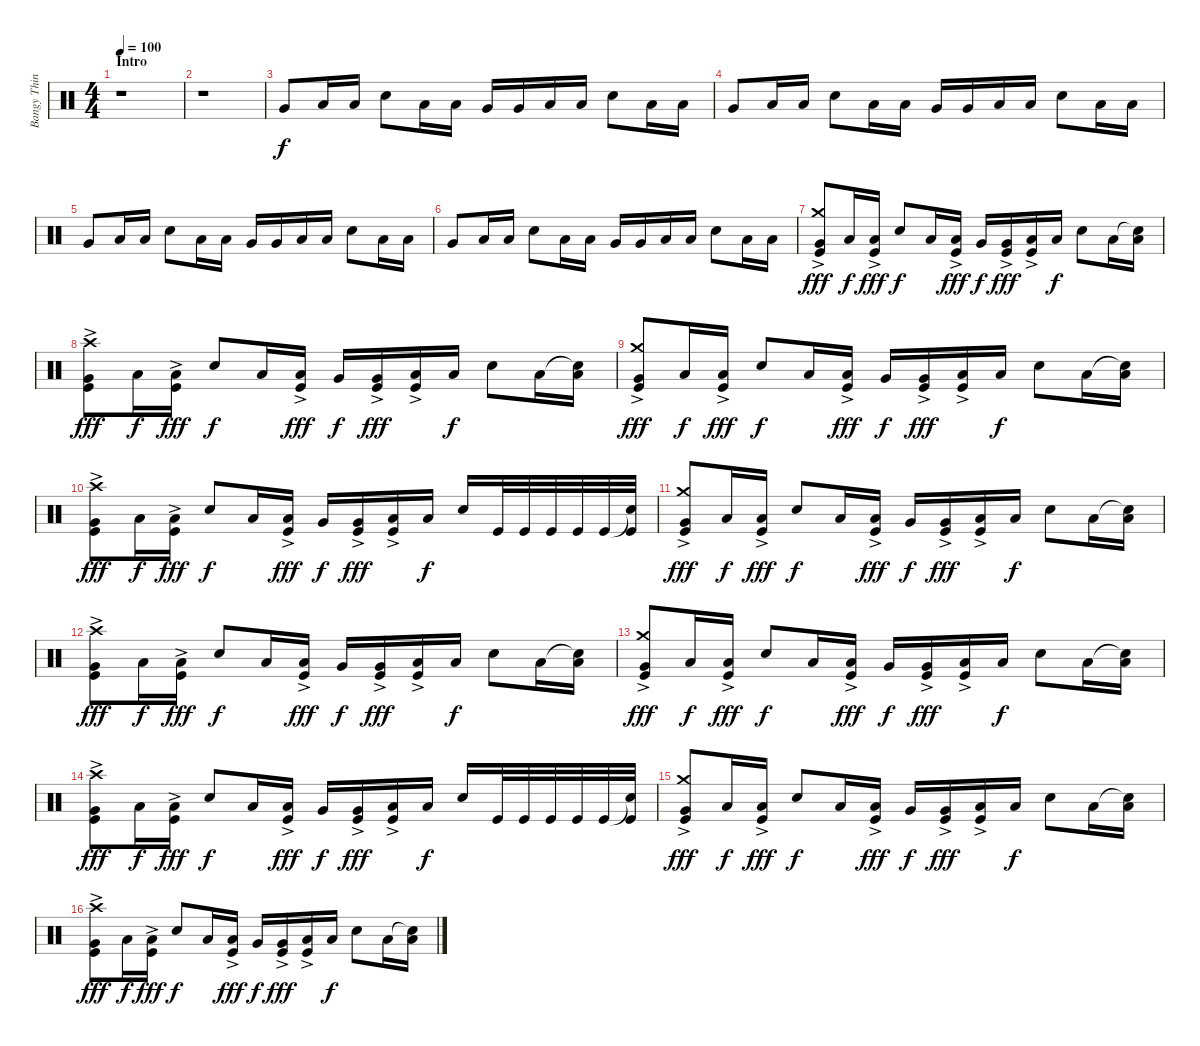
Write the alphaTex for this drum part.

\track ("Bangy Things" "Bangy Thin") {instrument percussion}
\staff {score}
\articulation defaults
\ts (4 4)
\section ("" "Intro")
\tempo 100
\clef neutral
\ks c
r.1{dy f} |
r.1 |
"Very Low Tom (hit)".8 "Low Floor Tom (hit)".16 "Low Floor Tom (hit)".16 "Electric Snare (hit)".8 "Low Floor Tom (hit)".16 "Low Floor Tom (hit)".16 "Very Low Tom (hit)".16 "Very Low Tom (hit)".16 "Low Floor Tom (hit)".16 "Low Floor Tom (hit)".16 "Electric Snare (hit)".8 "Low Floor Tom (hit)".16 "Low Floor Tom (hit)".16 |
"Very Low Tom (hit)".8 "Low Floor Tom (hit)".16 "Low Floor Tom (hit)".16 "Electric Snare (hit)".8 "Low Floor Tom (hit)".16 "Low Floor Tom (hit)".16 "Very Low Tom (hit)".16 "Very Low Tom (hit)".16 "Low Floor Tom (hit)".16 "Low Floor Tom (hit)".16 "Electric Snare (hit)".8 "Low Floor Tom (hit)".16 "Low Floor Tom (hit)".16 |
"Very Low Tom (hit)".8 "Low Floor Tom (hit)".16 "Low Floor Tom (hit)".16 "Electric Snare (hit)".8 "Low Floor Tom (hit)".16 "Low Floor Tom (hit)".16 "Very Low Tom (hit)".16 "Very Low Tom (hit)".16 "Low Floor Tom (hit)".16 "Low Floor Tom (hit)".16 "Electric Snare (hit)".8 "Low Floor Tom (hit)".16 "Low Floor Tom (hit)".16 |
"Very Low Tom (hit)".8 "Low Floor Tom (hit)".16 "Low Floor Tom (hit)".16 "Electric Snare (hit)".8 "Low Floor Tom (hit)".16 "Low Floor Tom (hit)".16 "Very Low Tom (hit)".16 "Very Low Tom (hit)".16 "Low Floor Tom (hit)".16 "Low Floor Tom (hit)".16 "Electric Snare (hit)".8 "Low Floor Tom (hit)".16 "Low Floor Tom (hit)".16 |
("Crash medium (hit)"{ac} "Very Low Tom (hit)" "Kick (hit)"{ac}).8{dy fff} "Low Floor Tom (hit)".16{dy f} ("Low Floor Tom (hit)" "Kick (hit)"{ac}).16{dy fff} "Electric Snare (hit)".8{dy f} "Low Floor Tom (hit)".16 ("Low Floor Tom (hit)" "Kick (hit)"{ac}).16{dy fff} "Very Low Tom (hit)".16{dy f} ("Very Low Tom (hit)" "Kick (hit)"{ac}).16{dy fff} ("Low Floor Tom (hit)" "Kick (hit)"{ac}).16 "Low Floor Tom (hit)".16{dy f} "Electric Snare (hit)".8 "Low Floor Tom (hit)".16 ("Snare (hit)"{t} "Low Floor Tom (hit)").16 |
("Crash high (hit)"{ac} "Very Low Tom (hit)" "Kick (hit)"{ac}).8{dy fff} "Low Floor Tom (hit)".16{dy f} ("Low Floor Tom (hit)" "Kick (hit)"{ac}).16{dy fff} "Electric Snare (hit)".8{dy f} "Low Floor Tom (hit)".16 ("Low Floor Tom (hit)" "Kick (hit)"{ac}).16{dy fff} "Very Low Tom (hit)".16{dy f} ("Very Low Tom (hit)" "Kick (hit)"{ac}).16{dy fff} ("Low Floor Tom (hit)" "Kick (hit)"{ac}).16 "Low Floor Tom (hit)".16{dy f} "Electric Snare (hit)".8 "Low Floor Tom (hit)".16 ("Snare (hit)"{t} "Low Floor Tom (hit)").16 |
("Crash medium (hit)"{ac} "Very Low Tom (hit)" "Kick (hit)"{ac}).8{dy fff} "Low Floor Tom (hit)".16{dy f} ("Low Floor Tom (hit)" "Kick (hit)"{ac}).16{dy fff} "Electric Snare (hit)".8{dy f} "Low Floor Tom (hit)".16 ("Low Floor Tom (hit)" "Kick (hit)"{ac}).16{dy fff} "Very Low Tom (hit)".16{dy f} ("Very Low Tom (hit)" "Kick (hit)"{ac}).16{dy fff} ("Low Floor Tom (hit)" "Kick (hit)"{ac}).16 "Low Floor Tom (hit)".16{dy f} "Electric Snare (hit)".8 "Low Floor Tom (hit)".16 ("Snare (hit)"{t} "Low Floor Tom (hit)").16 |
("Crash high (hit)"{ac} "Very Low Tom (hit)" "Kick (hit)"{ac}).8{dy fff} "Low Floor Tom (hit)".16{dy f} ("Low Floor Tom (hit)" "Kick (hit)"{ac}).16{dy fff} "Electric Snare (hit)".8{dy f} "Low Floor Tom (hit)".16 ("Low Floor Tom (hit)" "Kick (hit)"{ac}).16{dy fff} "Very Low Tom (hit)".16{dy f} ("Very Low Tom (hit)" "Kick (hit)"{ac}).16{dy fff} ("Low Floor Tom (hit)" "Kick (hit)"{ac}).16 "Low Floor Tom (hit)".16{dy f} "Electric Snare (hit)".16 "Kick (hit)".32 "Kick (hit)".32 "Kick (hit)".32 "Kick (hit)".32 "Kick (hit)".32 ("Snare (hit)"{t} "Kick (hit)").32 |
("Crash medium (hit)"{ac} "Very Low Tom (hit)" "Kick (hit)"{ac}).8{dy fff} "Low Floor Tom (hit)".16{dy f} ("Low Floor Tom (hit)" "Kick (hit)"{ac}).16{dy fff} "Electric Snare (hit)".8{dy f} "Low Floor Tom (hit)".16 ("Low Floor Tom (hit)" "Kick (hit)"{ac}).16{dy fff} "Very Low Tom (hit)".16{dy f} ("Very Low Tom (hit)" "Kick (hit)"{ac}).16{dy fff} ("Low Floor Tom (hit)" "Kick (hit)"{ac}).16 "Low Floor Tom (hit)".16{dy f} "Electric Snare (hit)".8 "Low Floor Tom (hit)".16 ("Snare (hit)"{t} "Low Floor Tom (hit)").16 |
("Crash high (hit)"{ac} "Very Low Tom (hit)" "Kick (hit)"{ac}).8{dy fff} "Low Floor Tom (hit)".16{dy f} ("Low Floor Tom (hit)" "Kick (hit)"{ac}).16{dy fff} "Electric Snare (hit)".8{dy f} "Low Floor Tom (hit)".16 ("Low Floor Tom (hit)" "Kick (hit)"{ac}).16{dy fff} "Very Low Tom (hit)".16{dy f} ("Very Low Tom (hit)" "Kick (hit)"{ac}).16{dy fff} ("Low Floor Tom (hit)" "Kick (hit)"{ac}).16 "Low Floor Tom (hit)".16{dy f} "Electric Snare (hit)".8 "Low Floor Tom (hit)".16 ("Snare (hit)"{t} "Low Floor Tom (hit)").16 |
("Crash medium (hit)"{ac} "Very Low Tom (hit)" "Kick (hit)"{ac}).8{dy fff} "Low Floor Tom (hit)".16{dy f} ("Low Floor Tom (hit)" "Kick (hit)"{ac}).16{dy fff} "Electric Snare (hit)".8{dy f} "Low Floor Tom (hit)".16 ("Low Floor Tom (hit)" "Kick (hit)"{ac}).16{dy fff} "Very Low Tom (hit)".16{dy f} ("Very Low Tom (hit)" "Kick (hit)"{ac}).16{dy fff} ("Low Floor Tom (hit)" "Kick (hit)"{ac}).16 "Low Floor Tom (hit)".16{dy f} "Electric Snare (hit)".8 "Low Floor Tom (hit)".16 ("Snare (hit)"{t} "Low Floor Tom (hit)").16 |
("Crash high (hit)"{ac} "Very Low Tom (hit)" "Kick (hit)"{ac}).8{dy fff} "Low Floor Tom (hit)".16{dy f} ("Low Floor Tom (hit)" "Kick (hit)"{ac}).16{dy fff} "Electric Snare (hit)".8{dy f} "Low Floor Tom (hit)".16 ("Low Floor Tom (hit)" "Kick (hit)"{ac}).16{dy fff} "Very Low Tom (hit)".16{dy f} ("Very Low Tom (hit)" "Kick (hit)"{ac}).16{dy fff} ("Low Floor Tom (hit)" "Kick (hit)"{ac}).16 "Low Floor Tom (hit)".16{dy f} "Electric Snare (hit)".16 "Kick (hit)".32 "Kick (hit)".32 "Kick (hit)".32 "Kick (hit)".32 "Kick (hit)".32 ("Snare (hit)"{t} "Kick (hit)").32 |
("Crash medium (hit)"{ac} "Very Low Tom (hit)" "Kick (hit)"{ac}).8{dy fff} "Low Floor Tom (hit)".16{dy f} ("Low Floor Tom (hit)" "Kick (hit)"{ac}).16{dy fff} "Electric Snare (hit)".8{dy f} "Low Floor Tom (hit)".16 ("Low Floor Tom (hit)" "Kick (hit)"{ac}).16{dy fff} "Very Low Tom (hit)".16{dy f} ("Very Low Tom (hit)" "Kick (hit)"{ac}).16{dy fff} ("Low Floor Tom (hit)" "Kick (hit)"{ac}).16 "Low Floor Tom (hit)".16{dy f} "Electric Snare (hit)".8 "Low Floor Tom (hit)".16 ("Snare (hit)"{t} "Low Floor Tom (hit)").16 |
("Crash high (hit)"{ac} "Very Low Tom (hit)" "Kick (hit)"{ac}).8{dy fff} "Low Floor Tom (hit)".16{dy f} ("Low Floor Tom (hit)" "Kick (hit)"{ac}).16{dy fff} "Electric Snare (hit)".8{dy f} "Low Floor Tom (hit)".16 ("Low Floor Tom (hit)" "Kick (hit)"{ac}).16{dy fff} "Very Low Tom (hit)".16{dy f} ("Very Low Tom (hit)" "Kick (hit)"{ac}).16{dy fff} ("Low Floor Tom (hit)" "Kick (hit)"{ac}).16 "Low Floor Tom (hit)".16{dy f} "Electric Snare (hit)".8 "Low Floor Tom (hit)".16 ("Snare (hit)"{t} "Low Floor Tom (hit)").16
